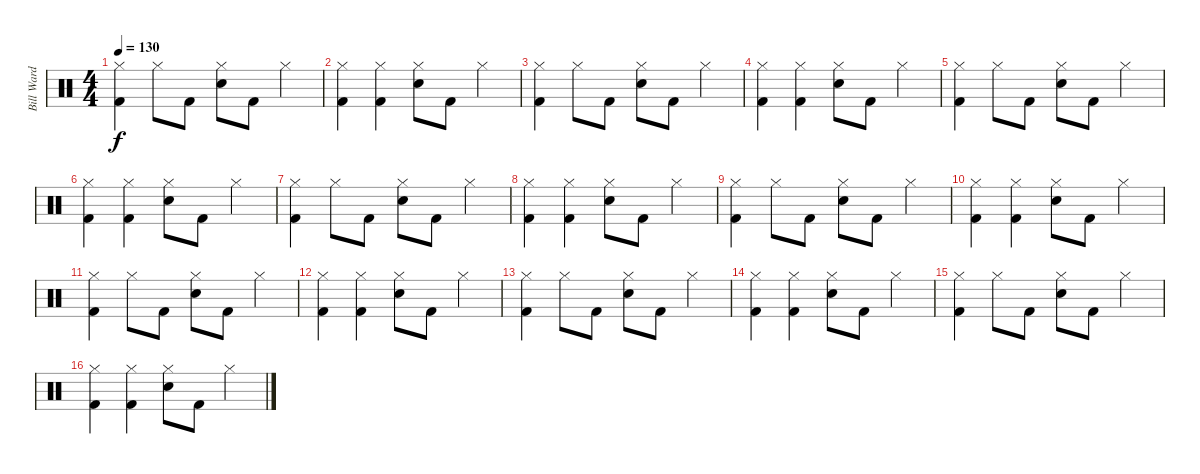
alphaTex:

\track ("Bill Ward" "Bill Ward") {instrument percussion}
\staff {score}
\articulation defaults
\ts (4 4)
\tempo 130
\clef neutral
\ks c
("Hi-Hat (closed)" "Kick (hit) 2").4{dy f} "Hi-Hat (closed)".8 "Kick (hit) 2".8 ("Hi-Hat (closed)" "Snare (hit) 2").8 "Kick (hit) 2".8 "Hi-Hat (closed)".4 |
("Hi-Hat (closed)" "Kick (hit) 2").4 ("Hi-Hat (closed)" "Kick (hit) 2").4 ("Hi-Hat (closed)" "Snare (hit) 2").8 "Kick (hit) 2".8 "Hi-Hat (closed)".4 |
("Hi-Hat (closed)" "Kick (hit) 2").4 "Hi-Hat (closed)".8 "Kick (hit) 2".8 ("Hi-Hat (closed)" "Snare (hit) 2").8 "Kick (hit) 2".8 "Hi-Hat (closed)".4 |
("Hi-Hat (closed)" "Kick (hit) 2").4 ("Hi-Hat (closed)" "Kick (hit) 2").4 ("Hi-Hat (closed)" "Snare (hit) 2").8 "Kick (hit) 2".8 "Hi-Hat (closed)".4 |
("Hi-Hat (closed)" "Kick (hit) 2").4 "Hi-Hat (closed)".8 "Kick (hit) 2".8 ("Hi-Hat (closed)" "Snare (hit) 2").8 "Kick (hit) 2".8 "Hi-Hat (closed)".4 |
("Hi-Hat (closed)" "Kick (hit) 2").4 ("Hi-Hat (closed)" "Kick (hit) 2").4 ("Hi-Hat (closed)" "Snare (hit) 2").8 "Kick (hit) 2".8 "Hi-Hat (closed)".4 |
("Hi-Hat (closed)" "Kick (hit) 2").4 "Hi-Hat (closed)".8 "Kick (hit) 2".8 ("Hi-Hat (closed)" "Snare (hit) 2").8 "Kick (hit) 2".8 "Hi-Hat (closed)".4 |
("Hi-Hat (closed)" "Kick (hit) 2").4 ("Hi-Hat (closed)" "Kick (hit) 2").4 ("Hi-Hat (closed)" "Snare (hit) 2").8 "Kick (hit) 2".8 "Hi-Hat (closed)".4 |
("Hi-Hat (closed)" "Kick (hit) 2").4 "Hi-Hat (closed)".8 "Kick (hit) 2".8 ("Hi-Hat (closed)" "Snare (hit) 2").8 "Kick (hit) 2".8 "Hi-Hat (closed)".4 |
("Hi-Hat (closed)" "Kick (hit) 2").4 ("Hi-Hat (closed)" "Kick (hit) 2").4 ("Hi-Hat (closed)" "Snare (hit) 2").8 "Kick (hit) 2".8 "Hi-Hat (closed)".4 |
("Hi-Hat (closed)" "Kick (hit) 2").4 "Hi-Hat (closed)".8 "Kick (hit) 2".8 ("Hi-Hat (closed)" "Snare (hit) 2").8 "Kick (hit) 2".8 "Hi-Hat (closed)".4 |
("Hi-Hat (closed)" "Kick (hit) 2").4 ("Hi-Hat (closed)" "Kick (hit) 2").4 ("Hi-Hat (closed)" "Snare (hit) 2").8 "Kick (hit) 2".8 "Hi-Hat (closed)".4 |
("Hi-Hat (closed)" "Kick (hit) 2").4 "Hi-Hat (closed)".8 "Kick (hit) 2".8 ("Hi-Hat (closed)" "Snare (hit) 2").8 "Kick (hit) 2".8 "Hi-Hat (closed)".4 |
("Hi-Hat (closed)" "Kick (hit) 2").4 ("Hi-Hat (closed)" "Kick (hit) 2").4 ("Hi-Hat (closed)" "Snare (hit) 2").8 "Kick (hit) 2".8 "Hi-Hat (closed)".4 |
("Hi-Hat (closed)" "Kick (hit) 2").4 "Hi-Hat (closed)".8 "Kick (hit) 2".8 ("Hi-Hat (closed)" "Snare (hit) 2").8 "Kick (hit) 2".8 "Hi-Hat (closed)".4 |
("Hi-Hat (closed)" "Kick (hit) 2").4 ("Hi-Hat (closed)" "Kick (hit) 2").4 ("Hi-Hat (closed)" "Snare (hit) 2").8 "Kick (hit) 2".8 "Hi-Hat (closed)".4
